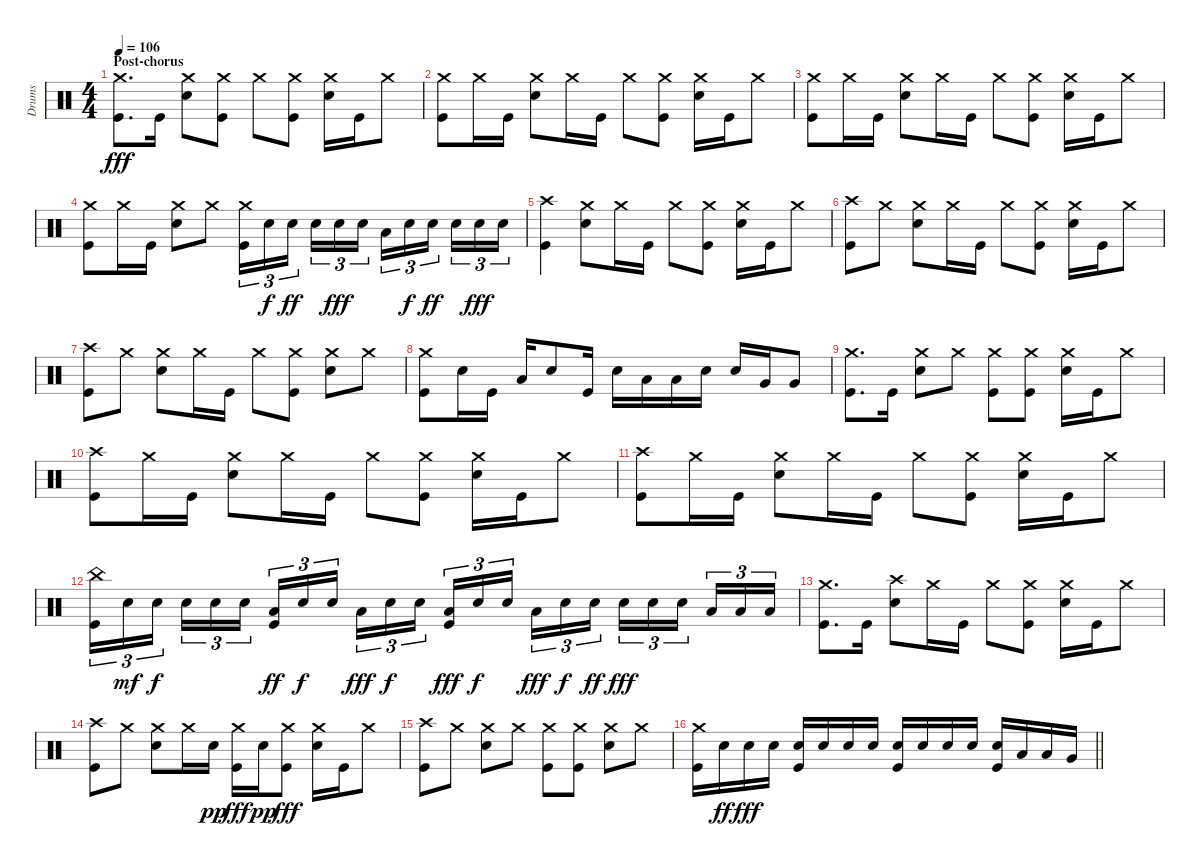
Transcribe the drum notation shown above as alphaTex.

\track ("Drums" "Drums") {instrument percussion}
\staff {score}
\articulation defaults
\ts (4 4)
\section ("" "Post-chorus")
\tempo 106
\clef neutral
\ks c
("Crash medium (hit)" "Kick (hit)").8{d dy fff} "Kick (hit)".16 ("Crash medium (hit)" "Snare (hit) 2").8 ("Crash medium (hit)" "Kick (hit)").8 "Crash medium (hit)".8 ("Crash medium (hit)" "Kick (hit)").8 ("Crash medium (hit)" "Snare (hit) 2").16 "Kick (hit)".16 "Crash medium (hit)".8 |
("Crash medium (hit)" "Kick (hit)").8 "Crash medium (hit)".16 "Kick (hit)".16 ("Crash medium (hit)" "Snare (hit) 2").8 "Crash medium (hit)".16 "Kick (hit)".16 "Crash medium (hit)".8 ("Crash medium (hit)" "Kick (hit)").8 ("Crash medium (hit)" "Snare (hit) 2").16 "Kick (hit)".16 "Crash medium (hit)".8 |
("Crash medium (hit)" "Kick (hit)").8 "Crash medium (hit)".16 "Kick (hit)".16 ("Crash medium (hit)" "Snare (hit) 2").8 "Crash medium (hit)".16 "Kick (hit)".16 "Crash medium (hit)".8 ("Crash medium (hit)" "Kick (hit)").8 ("Crash medium (hit)" "Snare (hit) 2").16 "Kick (hit)".16 "Crash medium (hit)".8 |
("Crash medium (hit)" "Kick (hit)").8 "Crash medium (hit)".16 "Kick (hit)".16 ("Crash medium (hit)" "Snare (hit) 2").8 "Crash medium (hit)".8 ("Crash medium (hit)" "Kick (hit)").16{tu (3 2)} "Snare (hit) 2".16{tu (3 2) dy f} "Snare (hit) 2".16{tu (3 2) dy ff beam splitsecondary} "Snare (hit) 2".16{tu (3 2)} "Snare (hit) 2".16{tu (3 2) dy fff} "Snare (hit) 2".16{tu (3 2)} "Low Tom (hit)".16{tu (3 2)} "Snare (hit) 2".16{tu (3 2) dy f} "Snare (hit) 2".16{tu (3 2) dy ff beam splitsecondary} "Snare (hit) 2".16{tu (3 2)} "Snare (hit) 2".16{tu (3 2) dy fff} "Snare (hit) 2".16{tu (3 2)} |
("Crash high (hit)" "Kick (hit)").4 ("Crash medium (hit)" "Snare (hit) 2").8 "Crash medium (hit)".16 "Kick (hit)".16 "Crash medium (hit)".8 ("Crash medium (hit)" "Kick (hit)").8 ("Crash medium (hit)" "Snare (hit) 2").16 "Kick (hit)".16 "Crash medium (hit)".8 |
("Crash high (hit)" "Kick (hit)").8 "Crash medium (hit)".8 ("Crash medium (hit)" "Snare (hit) 2").8 "Crash medium (hit)".16 "Kick (hit)".16 "Crash medium (hit)".8 ("Crash medium (hit)" "Kick (hit)").8 ("Crash medium (hit)" "Snare (hit) 2").16 "Kick (hit)".16 "Crash medium (hit)".8 |
("Crash high (hit)" "Kick (hit)").8 "Crash medium (hit)".8 ("Crash medium (hit)" "Snare (hit) 2").8 "Crash medium (hit)".16 "Kick (hit)".16 "Crash medium (hit)".8 ("Crash medium (hit)" "Kick (hit)").8 ("Crash medium (hit)" "Snare (hit) 2").8 "Crash medium (hit)".8 |
("Crash medium (hit)" "Kick (hit)").8 "Snare (hit) 2".16 "Kick (hit)".16 "Low Tom (hit)".16 "Snare (hit) 2".8 "Kick (hit)".16 "Snare (hit) 2".16 "Low Tom (hit)".16 "Low Tom (hit)".16 "Snare (hit) 2".16 "Snare (hit) 2".16 "Very Low Tom (hit)".16 "Very Low Tom (hit)".8 |
("Crash medium (hit)" "Kick (hit)").8{d} "Kick (hit)".16 ("Crash medium (hit)" "Snare (hit) 2").8 "Crash medium (hit)".8 ("Crash medium (hit)" "Kick (hit)").8 ("Crash medium (hit)" "Kick (hit)").8 ("Crash medium (hit)" "Snare (hit) 2").16 "Kick (hit)".16 "Crash medium (hit)".8 |
("Crash high (hit)" "Kick (hit)").8 "Crash medium (hit)".16 "Kick (hit)".16 ("Crash medium (hit)" "Snare (hit) 2").8 "Crash medium (hit)".16 "Kick (hit)".16 "Crash medium (hit)".8 ("Crash medium (hit)" "Kick (hit)").8 ("Crash medium (hit)" "Snare (hit) 2").16 "Kick (hit)".16 "Crash medium (hit)".8 |
("Crash high (hit)" "Kick (hit)").8 "Crash medium (hit)".16 "Kick (hit)".16 ("Crash medium (hit)" "Snare (hit) 2").8 "Crash medium (hit)".16 "Kick (hit)".16 "Crash medium (hit)".8 ("Crash medium (hit)" "Kick (hit)").8 ("Crash medium (hit)" "Snare (hit) 2").16 "Kick (hit)".16 "Crash medium (hit)".8 |
("China (hit)" "Kick (hit)").16{tu (3 2)} "Snare (hit) 2".16{tu (3 2) dy mf} "Snare (hit) 2".16{tu (3 2) dy f beam splitsecondary} "Snare (hit) 2".16{tu (3 2)} "Snare (hit) 2".16{tu (3 2)} "Snare (hit) 2".16{tu (3 2)} ("Low Tom (hit)" "Kick (hit)").16{tu (3 2) dy ff} "Snare (hit) 2".16{tu (3 2) dy f} "Snare (hit) 2".16{tu (3 2) beam splitsecondary} "Low Tom (hit)".16{tu (3 2) dy fff} "Snare (hit) 2".16{tu (3 2) dy f} "Snare (hit) 2".16{tu (3 2)} ("Low Tom (hit)" "Kick (hit)").16{tu (3 2) dy fff} "Snare (hit) 2".16{tu (3 2) dy f} "Snare (hit) 2".16{tu (3 2) beam splitsecondary} "Low Tom (hit)".16{tu (3 2) dy fff} "Snare (hit) 2".16{tu (3 2) dy f} "Snare (hit) 2".16{tu (3 2) dy ff} "Snare (hit) 2".16{tu (3 2) dy fff} "Snare (hit) 2".16{tu (3 2)} "Snare (hit) 2".16{tu (3 2) beam splitsecondary} "Low Tom (hit)".16{tu (3 2)} "Low Tom (hit)".16{tu (3 2)} "Low Tom (hit)".16{tu (3 2)} |
("Crash medium (hit)" "Kick (hit)").8{d} "Kick (hit)".16 ("Crash high (hit)" "Snare (hit) 2").8 "Crash medium (hit)".16 "Kick (hit)".16 "Crash medium (hit)".8 ("Crash medium (hit)" "Kick (hit)").8 ("Crash medium (hit)" "Snare (hit) 2").16 "Kick (hit)".16 "Crash medium (hit)".8 |
("Crash high (hit)" "Kick (hit)").8 "Crash medium (hit)".8 ("Crash medium (hit)" "Snare (hit) 2").8 "Crash medium (hit)".16 "Snare (hit) 2".16{dy pp} ("Crash medium (hit)" "Kick (hit)").16{dy fff} "Snare (hit) 2".16{dy pp} ("Crash medium (hit)" "Kick (hit)").8{dy fff} ("Crash medium (hit)" "Snare (hit) 2").16 "Kick (hit)".16 "Crash medium (hit)".8 |
("Crash high (hit)" "Kick (hit)").8 "Crash medium (hit)".8 ("Crash medium (hit)" "Snare (hit) 2").8 "Crash medium (hit)".8 ("Crash medium (hit)" "Kick (hit)").8 ("Crash medium (hit)" "Kick (hit)").8 ("Crash medium (hit)" "Snare (hit) 2").8 "Crash medium (hit)".8 |
\barLineRight lightlight
("Crash medium (hit)" "Kick (hit)").16 "Snare (hit) 2".16{dy ff} "Snare (hit) 2".16{dy fff} "Snare (hit) 2".16 ("Snare (hit) 2" "Kick (hit)").16 "Snare (hit) 2".16 "Snare (hit) 2".16 "Snare (hit) 2".16 ("Snare (hit) 2" "Kick (hit)").16 "Snare (hit) 2".16 "Snare (hit) 2".16 "Snare (hit) 2".16 ("Snare (hit) 2" "Kick (hit)").16 "Low Tom (hit)".16 "Low Tom (hit)".16 "Very Low Tom (hit)".16
